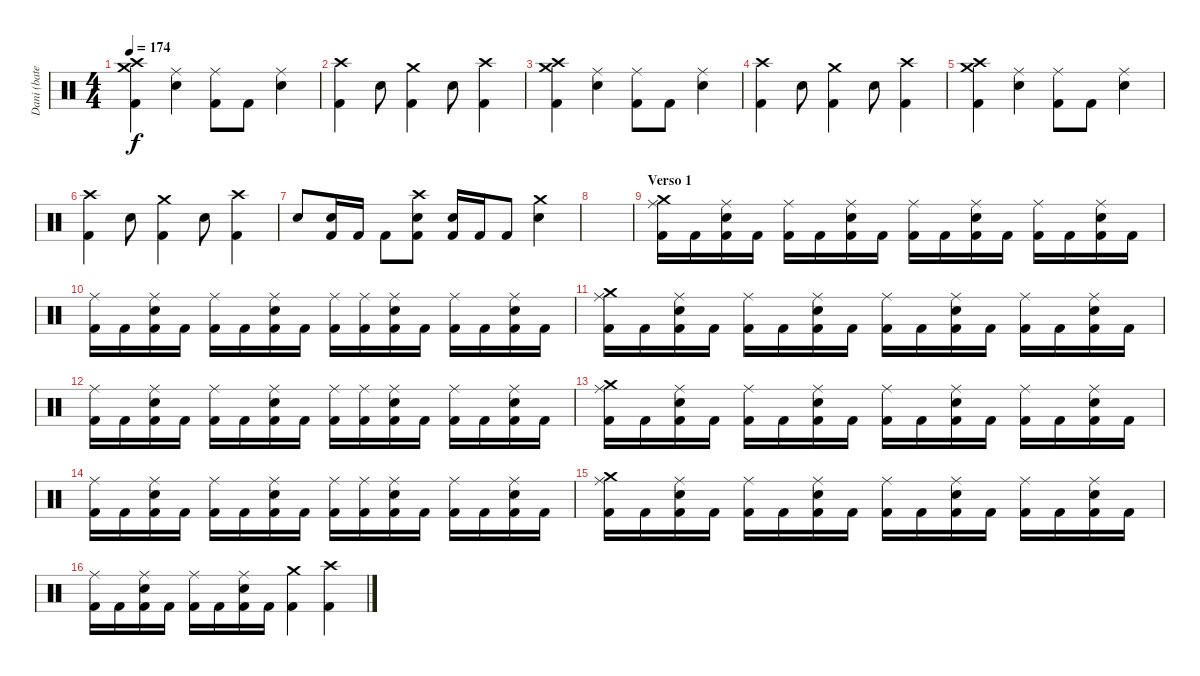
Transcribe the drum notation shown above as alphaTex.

\track ("Dani (batería)" "Dani (bate") {instrument percussion}
\staff {score}
\articulation defaults
\ts (4 4)
\tempo 174
\clef neutral
\ks c
("Crash medium (hit)" "Crash high (hit)" "Kick (hit) 2").4{dy f} ("Ride (middle)" "Electric Snare (hit)").4 ("Ride (middle)" "Kick (hit) 2").8 "Kick (hit) 2".8 ("Ride (middle)" "Electric Snare (hit)").4 |
("Crash high (hit)" "Kick (hit) 2").4 "Electric Snare (hit)".8 ("Crash medium (hit)" "Kick (hit) 2").4 "Electric Snare (hit)".8 ("Crash high (hit)" "Kick (hit) 2").4 |
("Crash medium (hit)" "Crash high (hit)" "Kick (hit) 2").4 ("Ride (middle)" "Electric Snare (hit)").4 ("Ride (middle)" "Kick (hit) 2").8 "Kick (hit) 2".8 ("Ride (middle)" "Electric Snare (hit)").4 |
("Crash high (hit)" "Kick (hit) 2").4 "Electric Snare (hit)".8 ("Crash medium (hit)" "Kick (hit) 2").4 "Electric Snare (hit)".8 ("Crash high (hit)" "Kick (hit) 2").4 |
("Crash medium (hit)" "Crash high (hit)" "Kick (hit) 2").4 ("Ride (middle)" "Electric Snare (hit)").4 ("Ride (middle)" "Kick (hit) 2").8 "Kick (hit) 2".8 ("Ride (middle)" "Electric Snare (hit)").4 |
("Crash high (hit)" "Kick (hit) 2").4 "Electric Snare (hit)".8 ("Crash medium (hit)" "Kick (hit) 2").4 "Electric Snare (hit)".8 ("Crash high (hit)" "Kick (hit) 2").4 |
"Electric Snare (hit)".8 ("Electric Snare (hit)" "Kick (hit) 2").16 "Kick (hit) 2".16 "Kick (hit) 2".8 ("Crash high (hit)" "Electric Snare (hit)" "Kick (hit) 2").8 ("Electric Snare (hit)" "Kick (hit) 2").16 "Kick (hit) 2".16 "Kick (hit) 2".8 ("Crash medium (hit)" "Electric Snare (hit)").4 |
|
\section ("" "Verso 1")
("Crash medium (hit)" "Ride (middle)" "Kick (hit) 2").16 "Kick (hit) 2".16 ("Ride (middle)" "Electric Snare (hit)" "Kick (hit) 2").16 "Kick (hit) 2".16 ("Ride (middle)" "Kick (hit) 2").16 "Kick (hit) 2".16 ("Ride (middle)" "Electric Snare (hit)" "Kick (hit) 2").16 "Kick (hit) 2".16 ("Ride (middle)" "Kick (hit) 2").16 "Kick (hit) 2".16 ("Ride (middle)" "Electric Snare (hit)" "Kick (hit) 2").16 "Kick (hit) 2".16 ("Ride (middle)" "Kick (hit) 2").16 "Kick (hit) 2".16 ("Ride (middle)" "Electric Snare (hit)" "Kick (hit) 2").16 "Kick (hit) 2".16 |
("Ride (middle)" "Kick (hit) 2").16 "Kick (hit) 2".16 ("Ride (middle)" "Electric Snare (hit)" "Kick (hit) 2").16 "Kick (hit) 2".16 ("Ride (middle)" "Kick (hit) 2").16 "Kick (hit) 2".16 ("Ride (middle)" "Electric Snare (hit)" "Kick (hit) 2").16 "Kick (hit) 2".16 ("Ride (middle)" "Kick (hit) 2").16 ("Ride (middle)" "Kick (hit) 2").16 ("Ride (middle)" "Electric Snare (hit)" "Kick (hit) 2").16 "Kick (hit) 2".16 ("Ride (middle)" "Kick (hit) 2").16 "Kick (hit) 2".16 ("Ride (middle)" "Electric Snare (hit)" "Kick (hit) 2").16 "Kick (hit) 2".16 |
("Crash medium (hit)" "Ride (middle)" "Kick (hit) 2").16 "Kick (hit) 2".16 ("Ride (middle)" "Electric Snare (hit)" "Kick (hit) 2").16 "Kick (hit) 2".16 ("Ride (middle)" "Kick (hit) 2").16 "Kick (hit) 2".16 ("Ride (middle)" "Electric Snare (hit)" "Kick (hit) 2").16 "Kick (hit) 2".16 ("Ride (middle)" "Kick (hit) 2").16 "Kick (hit) 2".16 ("Ride (middle)" "Electric Snare (hit)" "Kick (hit) 2").16 "Kick (hit) 2".16 ("Ride (middle)" "Kick (hit) 2").16 "Kick (hit) 2".16 ("Ride (middle)" "Electric Snare (hit)" "Kick (hit) 2").16 "Kick (hit) 2".16 |
("Ride (middle)" "Kick (hit) 2").16 "Kick (hit) 2".16 ("Ride (middle)" "Electric Snare (hit)" "Kick (hit) 2").16 "Kick (hit) 2".16 ("Ride (middle)" "Kick (hit) 2").16 "Kick (hit) 2".16 ("Ride (middle)" "Electric Snare (hit)" "Kick (hit) 2").16 "Kick (hit) 2".16 ("Ride (middle)" "Kick (hit) 2").16 ("Ride (middle)" "Kick (hit) 2").16 ("Ride (middle)" "Electric Snare (hit)" "Kick (hit) 2").16 "Kick (hit) 2".16 ("Ride (middle)" "Kick (hit) 2").16 "Kick (hit) 2".16 ("Ride (middle)" "Electric Snare (hit)" "Kick (hit) 2").16 "Kick (hit) 2".16 |
("Crash medium (hit)" "Ride (middle)" "Kick (hit) 2").16 "Kick (hit) 2".16 ("Ride (middle)" "Electric Snare (hit)" "Kick (hit) 2").16 "Kick (hit) 2".16 ("Ride (middle)" "Kick (hit) 2").16 "Kick (hit) 2".16 ("Ride (middle)" "Electric Snare (hit)" "Kick (hit) 2").16 "Kick (hit) 2".16 ("Ride (middle)" "Kick (hit) 2").16 "Kick (hit) 2".16 ("Ride (middle)" "Electric Snare (hit)" "Kick (hit) 2").16 "Kick (hit) 2".16 ("Ride (middle)" "Kick (hit) 2").16 "Kick (hit) 2".16 ("Ride (middle)" "Electric Snare (hit)" "Kick (hit) 2").16 "Kick (hit) 2".16 |
("Ride (middle)" "Kick (hit) 2").16 "Kick (hit) 2".16 ("Ride (middle)" "Electric Snare (hit)" "Kick (hit) 2").16 "Kick (hit) 2".16 ("Ride (middle)" "Kick (hit) 2").16 "Kick (hit) 2".16 ("Ride (middle)" "Electric Snare (hit)" "Kick (hit) 2").16 "Kick (hit) 2".16 ("Ride (middle)" "Kick (hit) 2").16 ("Ride (middle)" "Kick (hit) 2").16 ("Ride (middle)" "Electric Snare (hit)" "Kick (hit) 2").16 "Kick (hit) 2".16 ("Ride (middle)" "Kick (hit) 2").16 "Kick (hit) 2".16 ("Ride (middle)" "Electric Snare (hit)" "Kick (hit) 2").16 "Kick (hit) 2".16 |
("Crash medium (hit)" "Ride (middle)" "Kick (hit) 2").16 "Kick (hit) 2".16 ("Ride (middle)" "Electric Snare (hit)" "Kick (hit) 2").16 "Kick (hit) 2".16 ("Ride (middle)" "Kick (hit) 2").16 "Kick (hit) 2".16 ("Ride (middle)" "Electric Snare (hit)" "Kick (hit) 2").16 "Kick (hit) 2".16 ("Ride (middle)" "Kick (hit) 2").16 "Kick (hit) 2".16 ("Ride (middle)" "Electric Snare (hit)" "Kick (hit) 2").16 "Kick (hit) 2".16 ("Ride (middle)" "Kick (hit) 2").16 "Kick (hit) 2".16 ("Ride (middle)" "Electric Snare (hit)" "Kick (hit) 2").16 "Kick (hit) 2".16 |
("Ride (middle)" "Kick (hit) 2").16 "Kick (hit) 2".16 ("Ride (middle)" "Electric Snare (hit)" "Kick (hit) 2").16 "Kick (hit) 2".16 ("Ride (middle)" "Kick (hit) 2").16 "Kick (hit) 2".16 ("Ride (middle)" "Electric Snare (hit)" "Kick (hit) 2").16 "Kick (hit) 2".16 ("Crash medium (hit)" "Kick (hit) 2").4 ("Crash high (hit)" "Kick (hit) 2").4
